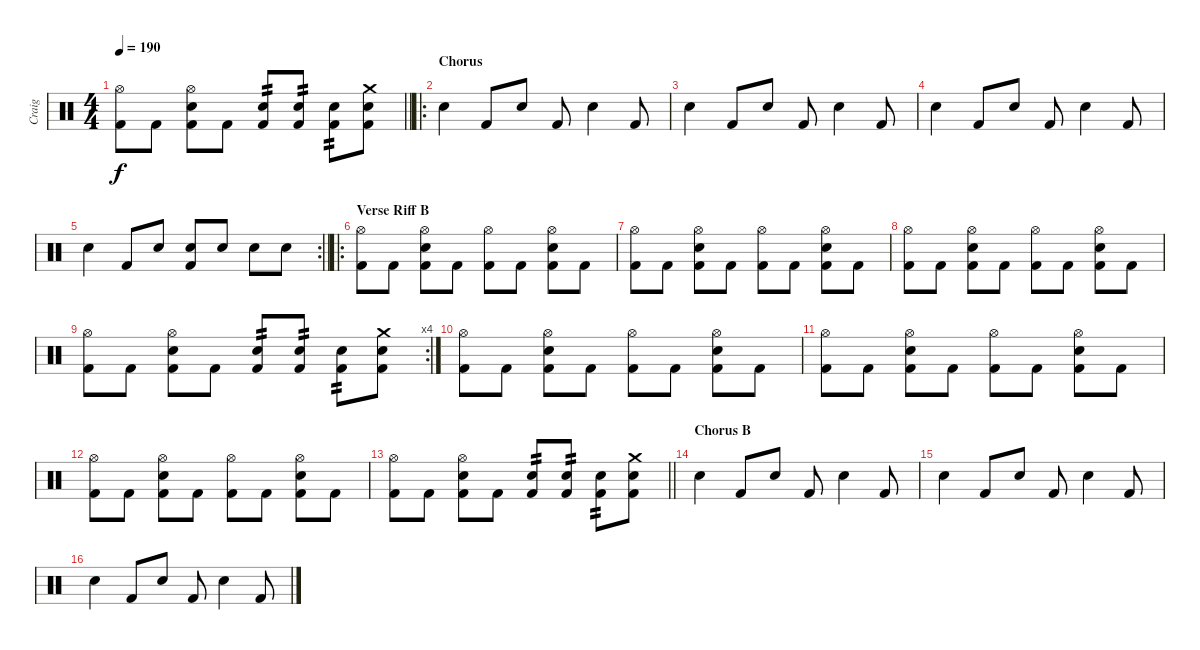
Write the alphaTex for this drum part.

\track ("Craig" "Craig") {instrument percussion}
\staff {score}
\articulation defaults
\ts (4 4)
\tempo 190
\clef neutral
\barLineRight lightlight
\ks c
("Hi-Hat (open)" "Kick (hit) 2").8{dy f} "Kick (hit) 2".8 ("Hi-Hat (open)" "Snare (hit) 2" "Kick (hit) 2").8 "Kick (hit) 2".8 ("Snare (hit) 2" "Kick (hit) 2").8{tp 2} ("Snare (hit) 2" "Kick (hit) 2").8{tp 2} ("Snare (hit) 2" "Kick (hit) 2").8{tp 2} ("Crash medium (hit)" "Snare (hit) 2" "Kick (hit) 2").8 |
\ro
\section ("" "Chorus")
"Snare (hit) 2".4 "Kick (hit) 2".8 "Snare (hit) 2".8 "Kick (hit) 2".8 "Snare (hit) 2".4 "Kick (hit) 2".8 |
"Snare (hit) 2".4 "Kick (hit) 2".8 "Snare (hit) 2".8 "Kick (hit) 2".8 "Snare (hit) 2".4 "Kick (hit) 2".8 |
"Snare (hit) 2".4 "Kick (hit) 2".8 "Snare (hit) 2".8 "Kick (hit) 2".8 "Snare (hit) 2".4 "Kick (hit) 2".8 |
\rc 2
\barLineRight lightlight "Snare (hit) 2".4 "Kick (hit) 2".8 "Snare (hit) 2".8
("Snare (hit) 2" "Kick (hit) 2").8 "Snare (hit) 2".8 "Snare (hit) 2".8 "Snare (hit) 2".8 |
\ro
\section ("" "Verse Riff B")
("Hi-Hat (open)" "Kick (hit) 2").8 "Kick (hit) 2".8 ("Hi-Hat (open)" "Snare (hit) 2" "Kick (hit) 2").8 "Kick (hit) 2".8 ("Hi-Hat (open)" "Kick (hit) 2").8 "Kick (hit) 2".8 ("Hi-Hat (open)" "Snare (hit) 2" "Kick (hit) 2").8 "Kick (hit) 2".8 |
("Hi-Hat (open)" "Kick (hit) 2").8 "Kick (hit) 2".8 ("Hi-Hat (open)" "Snare (hit) 2" "Kick (hit) 2").8 "Kick (hit) 2".8 ("Hi-Hat (open)" "Kick (hit) 2").8 "Kick (hit) 2".8 ("Hi-Hat (open)" "Snare (hit) 2" "Kick (hit) 2").8 "Kick (hit) 2".8 |
("Hi-Hat (open)" "Kick (hit) 2").8 "Kick (hit) 2".8 ("Hi-Hat (open)" "Snare (hit) 2" "Kick (hit) 2").8 "Kick (hit) 2".8 ("Hi-Hat (open)" "Kick (hit) 2").8 "Kick (hit) 2".8 ("Hi-Hat (open)" "Snare (hit) 2" "Kick (hit) 2").8 "Kick (hit) 2".8 |
\rc 4
("Hi-Hat (open)" "Kick (hit) 2").8 "Kick (hit) 2".8 ("Hi-Hat (open)" "Snare (hit) 2" "Kick (hit) 2").8 "Kick (hit) 2".8 ("Snare (hit) 2" "Kick (hit) 2").8{tp 2} ("Snare (hit) 2" "Kick (hit) 2").8{tp 2} ("Snare (hit) 2" "Kick (hit) 2").8{tp 2} ("Crash medium (hit)" "Snare (hit) 2" "Kick (hit) 2").8 |
("Hi-Hat (open)" "Kick (hit) 2").8 "Kick (hit) 2".8 ("Hi-Hat (open)" "Snare (hit) 2" "Kick (hit) 2").8 "Kick (hit) 2".8 ("Hi-Hat (open)" "Kick (hit) 2").8 "Kick (hit) 2".8 ("Hi-Hat (open)" "Snare (hit) 2" "Kick (hit) 2").8 "Kick (hit) 2".8 |
("Hi-Hat (open)" "Kick (hit) 2").8 "Kick (hit) 2".8 ("Hi-Hat (open)" "Snare (hit) 2" "Kick (hit) 2").8 "Kick (hit) 2".8 ("Hi-Hat (open)" "Kick (hit) 2").8 "Kick (hit) 2".8 ("Hi-Hat (open)" "Snare (hit) 2" "Kick (hit) 2").8 "Kick (hit) 2".8 |
("Hi-Hat (open)" "Kick (hit) 2").8 "Kick (hit) 2".8 ("Hi-Hat (open)" "Snare (hit) 2" "Kick (hit) 2").8 "Kick (hit) 2".8 ("Hi-Hat (open)" "Kick (hit) 2").8 "Kick (hit) 2".8 ("Hi-Hat (open)" "Snare (hit) 2" "Kick (hit) 2").8 "Kick (hit) 2".8 |
\barLineRight lightlight
("Hi-Hat (open)" "Kick (hit) 2").8 "Kick (hit) 2".8 ("Hi-Hat (open)" "Snare (hit) 2" "Kick (hit) 2").8 "Kick (hit) 2".8 ("Snare (hit) 2" "Kick (hit) 2").8{tp 2} ("Snare (hit) 2" "Kick (hit) 2").8{tp 2} ("Snare (hit) 2" "Kick (hit) 2").8{tp 2} ("Crash medium (hit)" "Snare (hit) 2" "Kick (hit) 2").8 |
\section ("" "Chorus B")
"Snare (hit) 2".4 "Kick (hit) 2".8 "Snare (hit) 2".8 "Kick (hit) 2".8 "Snare (hit) 2".4 "Kick (hit) 2".8 |
"Snare (hit) 2".4 "Kick (hit) 2".8 "Snare (hit) 2".8 "Kick (hit) 2".8 "Snare (hit) 2".4 "Kick (hit) 2".8 |
"Snare (hit) 2".4 "Kick (hit) 2".8 "Snare (hit) 2".8 "Kick (hit) 2".8 "Snare (hit) 2".4 "Kick (hit) 2".8
